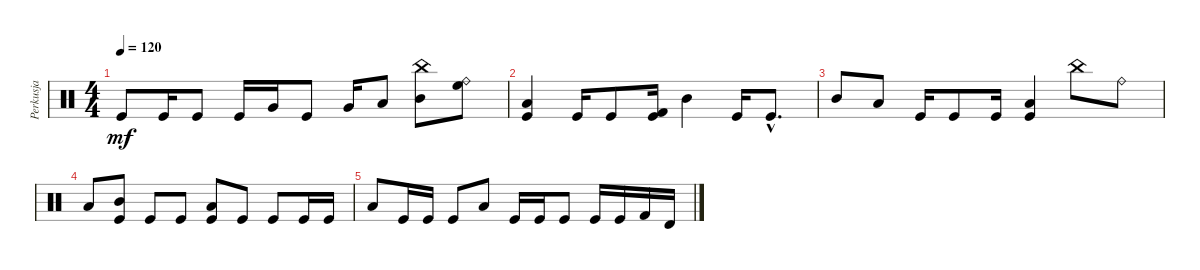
\track ("Perkusja" "Perkusja") {instrument percussion}
\staff {score}
\articulation defaults
\ts (4 4)
\tempo 120
\clef neutral
\ks c "Kick (hit)".8{dy mf} "Kick (hit)".16 "Kick (hit)".8 "Kick (hit)".16 "Very Low Tom (hit)".16 "Kick (hit)".8 "Very Low Tom (hit)".16 "Low Tom (hit)".8
("Mid Tom (hit)" "China (hit)").8 ("High Floor Tom (hit)" "Ride (bell)").8 |
("Low Tom (hit)" "Kick (hit)").4 "Kick (hit)".16 "Kick (hit)".8 ("Kick (hit) 2" "Kick (hit)").16 "Mid Tom (hit)".4 "Kick (hit)".16 "Kick (hit)"{hac}.8{d} |
"Mid Tom (hit)".8 "Low Tom (hit)".8 "Kick (hit)".16 "Kick (hit)".8 "Kick (hit)".16 ("Low Tom (hit)" "Kick (hit)").4 "China (hit)".8 "Ride (bell)".8 |
"Low Tom (hit)".8{volume 8} ("Kick (hit)" "Mid Tom (hit)").8 "Kick (hit)".8 "Kick (hit)".8 ("Kick (hit)" "Low Tom (hit)").8 "Kick (hit)".8 "Kick (hit)".8 "Kick (hit)".16 "Kick (hit)".16 |
"Low Tom (hit)".8{volume 0} "Kick (hit)".16 "Kick (hit)".16 "Kick (hit)".8 "Low Tom (hit)".8 "Kick (hit)".16 "Kick (hit)".16 "Kick (hit)".8 "Kick (hit)".16 "Kick (hit)".16 "Kick (hit) 2".16 "Timbale high (hit)".16
